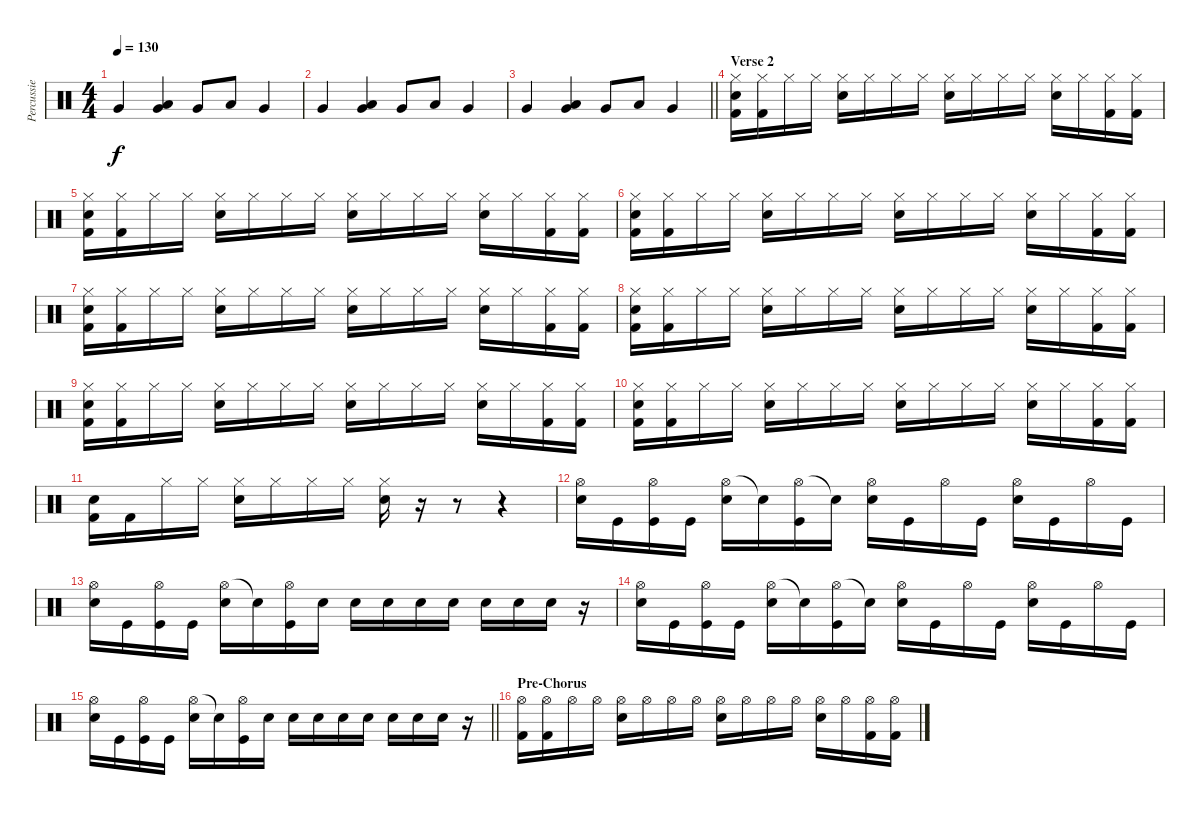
\track ("Percussie" "Percussie") {instrument percussion}
\staff {score}
\articulation defaults
\ts (4 4)
\tempo 130
\clef neutral
\ks c "Very Low Tom (hit)".4{dy f}
("Very Low Tom (hit)" "Low Floor Tom (hit)").4 "Very Low Tom (hit)".8 "Low Floor Tom (hit)".8 "Very Low Tom (hit)".4 |
"Very Low Tom (hit)".4 ("Very Low Tom (hit)" "Low Floor Tom (hit)").4 "Very Low Tom (hit)".8 "Low Floor Tom (hit)".8 "Very Low Tom (hit)".4 |
\barLineRight lightlight "Very Low Tom (hit)".4
("Very Low Tom (hit)" "Low Floor Tom (hit)").4 "Very Low Tom (hit)".8 "Low Floor Tom (hit)".8 "Very Low Tom (hit)".4 |
\section ("" "Verse 2")
("Hi-Hat (closed)" "Electric Snare (hit)" "Kick (hit) 2").16 ("Hi-Hat (closed)" "Kick (hit) 2").16 "Hi-Hat (closed)".16 "Hi-Hat (closed)".16 ("Hi-Hat (closed)" "Electric Snare (hit)").16 "Hi-Hat (closed)".16 "Hi-Hat (closed)".16 "Hi-Hat (closed)".16 ("Hi-Hat (closed)" "Electric Snare (hit)").16 "Hi-Hat (closed)".16 "Hi-Hat (closed)".16 "Hi-Hat (closed)".16 ("Hi-Hat (closed)" "Electric Snare (hit)").16 "Hi-Hat (closed)".16 ("Hi-Hat (closed)" "Kick (hit) 2").16 ("Hi-Hat (closed)" "Kick (hit) 2").16 |
("Hi-Hat (closed)" "Electric Snare (hit)" "Kick (hit) 2").16 ("Hi-Hat (closed)" "Kick (hit) 2").16 "Hi-Hat (closed)".16 "Hi-Hat (closed)".16 ("Hi-Hat (closed)" "Electric Snare (hit)").16 "Hi-Hat (closed)".16 "Hi-Hat (closed)".16 "Hi-Hat (closed)".16 ("Hi-Hat (closed)" "Electric Snare (hit)").16 "Hi-Hat (closed)".16 "Hi-Hat (closed)".16 "Hi-Hat (closed)".16 ("Hi-Hat (closed)" "Electric Snare (hit)").16 "Hi-Hat (closed)".16 ("Hi-Hat (closed)" "Kick (hit) 2").16 ("Hi-Hat (closed)" "Kick (hit) 2").16 |
("Hi-Hat (closed)" "Electric Snare (hit)" "Kick (hit) 2").16 ("Hi-Hat (closed)" "Kick (hit) 2").16 "Hi-Hat (closed)".16 "Hi-Hat (closed)".16 ("Hi-Hat (closed)" "Electric Snare (hit)").16 "Hi-Hat (closed)".16 "Hi-Hat (closed)".16 "Hi-Hat (closed)".16 ("Hi-Hat (closed)" "Electric Snare (hit)").16 "Hi-Hat (closed)".16 "Hi-Hat (closed)".16 "Hi-Hat (closed)".16 ("Hi-Hat (closed)" "Electric Snare (hit)").16 "Hi-Hat (closed)".16 ("Hi-Hat (closed)" "Kick (hit) 2").16 ("Hi-Hat (closed)" "Kick (hit) 2").16 |
("Hi-Hat (closed)" "Electric Snare (hit)" "Kick (hit) 2").16 ("Hi-Hat (closed)" "Kick (hit) 2").16 "Hi-Hat (closed)".16 "Hi-Hat (closed)".16 ("Hi-Hat (closed)" "Electric Snare (hit)").16 "Hi-Hat (closed)".16 "Hi-Hat (closed)".16 "Hi-Hat (closed)".16 ("Hi-Hat (closed)" "Electric Snare (hit)").16 "Hi-Hat (closed)".16 "Hi-Hat (closed)".16 "Hi-Hat (closed)".16 ("Hi-Hat (closed)" "Electric Snare (hit)").16 "Hi-Hat (closed)".16 ("Hi-Hat (closed)" "Kick (hit) 2").16 ("Hi-Hat (closed)" "Kick (hit) 2").16 |
("Hi-Hat (closed)" "Electric Snare (hit)" "Kick (hit) 2").16 ("Hi-Hat (closed)" "Kick (hit) 2").16 "Hi-Hat (closed)".16 "Hi-Hat (closed)".16 ("Hi-Hat (closed)" "Electric Snare (hit)").16 "Hi-Hat (closed)".16 "Hi-Hat (closed)".16 "Hi-Hat (closed)".16 ("Hi-Hat (closed)" "Electric Snare (hit)").16 "Hi-Hat (closed)".16 "Hi-Hat (closed)".16 "Hi-Hat (closed)".16 ("Hi-Hat (closed)" "Electric Snare (hit)").16 "Hi-Hat (closed)".16 ("Hi-Hat (closed)" "Kick (hit) 2").16 ("Hi-Hat (closed)" "Kick (hit) 2").16 |
("Hi-Hat (closed)" "Electric Snare (hit)" "Kick (hit) 2").16 ("Hi-Hat (closed)" "Kick (hit) 2").16 "Hi-Hat (closed)".16 "Hi-Hat (closed)".16 ("Hi-Hat (closed)" "Electric Snare (hit)").16 "Hi-Hat (closed)".16 "Hi-Hat (closed)".16 "Hi-Hat (closed)".16 ("Hi-Hat (closed)" "Electric Snare (hit)").16 "Hi-Hat (closed)".16 "Hi-Hat (closed)".16 "Hi-Hat (closed)".16 ("Hi-Hat (closed)" "Electric Snare (hit)").16 "Hi-Hat (closed)".16 ("Hi-Hat (closed)" "Kick (hit) 2").16 ("Hi-Hat (closed)" "Kick (hit) 2").16 |
("Hi-Hat (closed)" "Electric Snare (hit)" "Kick (hit) 2").16 ("Hi-Hat (closed)" "Kick (hit) 2").16 "Hi-Hat (closed)".16 "Hi-Hat (closed)".16 ("Hi-Hat (closed)" "Electric Snare (hit)").16 "Hi-Hat (closed)".16 "Hi-Hat (closed)".16 "Hi-Hat (closed)".16 ("Hi-Hat (closed)" "Electric Snare (hit)").16 "Hi-Hat (closed)".16 "Hi-Hat (closed)".16 "Hi-Hat (closed)".16 ("Hi-Hat (closed)" "Electric Snare (hit)").16 "Hi-Hat (closed)".16 ("Hi-Hat (closed)" "Kick (hit) 2").16 ("Hi-Hat (closed)" "Kick (hit) 2").16 |
("Electric Snare (hit)" "Kick (hit) 2").16 "Kick (hit) 2".16 "Hi-Hat (closed)".16 "Hi-Hat (closed)".16 ("Hi-Hat (closed)" "Electric Snare (hit)").16 "Hi-Hat (closed)".16 "Hi-Hat (closed)".16 "Hi-Hat (closed)".16 ("Hi-Hat (closed)" "Electric Snare (hit)").16 r.16 r.8 r.4 |
("Hi-Hat (open)" "Snare (hit) 2").16 "Kick (hit)".16 ("Hi-Hat (open)" "Kick (hit)").16 "Kick (hit)".16 ("Hi-Hat (open)" "Snare (hit) 2").16 "Snare (hit)"{t}.16 ("Hi-Hat (open)" "Kick (hit)").16 "Snare (hit)"{t}.16 ("Hi-Hat (open)" "Snare (hit) 2").16 "Kick (hit)".16 "Hi-Hat (open)".16 "Kick (hit)".16 ("Hi-Hat (open)" "Snare (hit) 2").16 "Kick (hit)".16 "Hi-Hat (open)".16 "Kick (hit)".16 |
("Hi-Hat (open)" "Snare (hit) 2").16 "Kick (hit)".16 ("Hi-Hat (open)" "Kick (hit)").16 "Kick (hit)".16 ("Hi-Hat (open)" "Snare (hit) 2").16 "Snare (hit)"{t}.16 ("Hi-Hat (open)" "Kick (hit)").16 "Snare (hit) 2".16 "Snare (hit) 2".16 "Snare (hit) 2".16 "Snare (hit) 2".16 "Snare (hit) 2".16 "Snare (hit) 2".16 "Snare (hit) 2".16 "Snare (hit) 2".16 r.16 |
("Hi-Hat (open)" "Snare (hit) 2").16 "Kick (hit)".16 ("Hi-Hat (open)" "Kick (hit)").16 "Kick (hit)".16 ("Hi-Hat (open)" "Snare (hit) 2").16 "Snare (hit)"{t}.16 ("Hi-Hat (open)" "Kick (hit)").16 "Snare (hit)"{t}.16 ("Hi-Hat (open)" "Snare (hit) 2").16 "Kick (hit)".16 "Hi-Hat (open)".16 "Kick (hit)".16 ("Hi-Hat (open)" "Snare (hit) 2").16 "Kick (hit)".16 "Hi-Hat (open)".16 "Kick (hit)".16 |
\barLineRight lightlight
("Hi-Hat (open)" "Snare (hit) 2").16 "Kick (hit)".16 ("Hi-Hat (open)" "Kick (hit)").16 "Kick (hit)".16 ("Hi-Hat (open)" "Snare (hit) 2").16 "Snare (hit)"{t}.16 ("Hi-Hat (open)" "Kick (hit)").16 "Snare (hit) 2".16 "Snare (hit) 2".16 "Snare (hit) 2".16 "Snare (hit) 2".16 "Snare (hit) 2".16 "Snare (hit) 2".16 "Snare (hit) 2".16 "Snare (hit) 2".16 r.16 |
\section ("" "Pre-Chorus")
("Hi-Hat (open)" "Kick (hit) 2").16 ("Hi-Hat (open)" "Kick (hit) 2").16 "Hi-Hat (open)".16 "Hi-Hat (open)".16 ("Hi-Hat (open)" "Electric Snare (hit)").16 "Hi-Hat (open)".16 "Hi-Hat (open)".16 "Hi-Hat (open)".16 ("Hi-Hat (open)" "Electric Snare (hit)").16 "Hi-Hat (open)".16 "Hi-Hat (open)".16 "Hi-Hat (open)".16 ("Hi-Hat (open)" "Electric Snare (hit)").16 "Hi-Hat (open)".16 ("Hi-Hat (open)" "Kick (hit) 2").16 ("Hi-Hat (open)" "Kick (hit) 2").16
